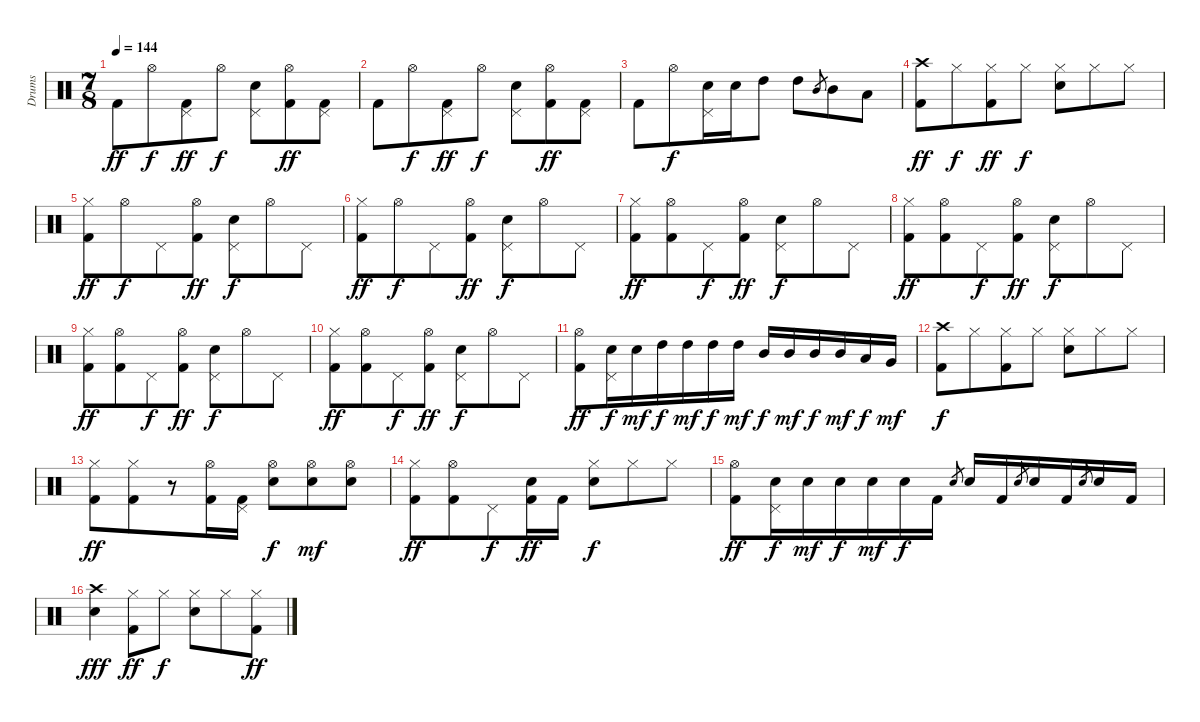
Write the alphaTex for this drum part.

\track ("Drums" "Drums") {instrument percussion}
\staff {score}
\articulation defaults
\ts (7 8)
\tempo 144
\clef neutral
\ks c "Kick (hit) 2".8{dy ff} "Hi-Hat (open)".8{dy f}
("Pedal Hi-Hat (hit)" "Kick (hit) 2").8{dy ff} "Hi-Hat (open)".8{dy f} ("Pedal Hi-Hat (hit)" "Snare (hit) 2").8 ("Hi-Hat (open)" "Kick (hit) 2").8{dy ff} ("Pedal Hi-Hat (hit)" "Kick (hit) 2").8 |
"Kick (hit) 2".8 "Hi-Hat (open)".8{dy f} ("Pedal Hi-Hat (hit)" "Kick (hit) 2").8{dy ff} "Hi-Hat (open)".8{dy f} ("Pedal Hi-Hat (hit)" "Snare (hit) 2").8 ("Hi-Hat (open)" "Kick (hit) 2").8{dy ff} ("Pedal Hi-Hat (hit)" "Kick (hit) 2").8 |
"Kick (hit) 2".8 "Hi-Hat (open)".8{dy f} ("Pedal Hi-Hat (hit)" "Snare (hit) 2").16 "Snare (hit) 2".16 "High Tom (hit)".8 "High Tom (hit)".8 "Mid Tom (hit)".8{gr} "Mid Tom (hit)".8 "Low Tom (hit)".8 |
("Crash high (hit)" "Kick (hit) 2").8{dy ff} "Hi-Hat (closed)".8{dy f} ("Hi-Hat (closed)" "Kick (hit) 2").8{dy ff} "Hi-Hat (closed)".8{dy f} ("Hi-Hat (closed)" "Snare (hit) 2").8 "Hi-Hat (closed)".8 "Hi-Hat (closed)".8 |
("Hi-Hat (closed)" "Kick (hit) 2").8{dy ff} "Hi-Hat (open)".8{dy f} "Pedal Hi-Hat (hit)".8 ("Hi-Hat (open)" "Kick (hit) 2").8{dy ff} ("Pedal Hi-Hat (hit)" "Snare (hit) 2").8{dy f} "Hi-Hat (open)".8 "Pedal Hi-Hat (hit)".8 |
("Hi-Hat (closed)" "Kick (hit) 2").8{dy ff} "Hi-Hat (open)".8{dy f} "Pedal Hi-Hat (hit)".8 ("Hi-Hat (open)" "Kick (hit) 2").8{dy ff} ("Pedal Hi-Hat (hit)" "Snare (hit) 2").8{dy f} "Hi-Hat (open)".8 "Pedal Hi-Hat (hit)".8 |
("Hi-Hat (closed)" "Kick (hit) 2").8{dy ff} ("Hi-Hat (open)" "Kick (hit) 2").8 "Pedal Hi-Hat (hit)".8{dy f} ("Hi-Hat (open)" "Kick (hit) 2").8{dy ff} ("Pedal Hi-Hat (hit)" "Snare (hit) 2").8{dy f} "Hi-Hat (open)".8 "Pedal Hi-Hat (hit)".8 |
("Hi-Hat (closed)" "Kick (hit) 2").8{dy ff} ("Hi-Hat (open)" "Kick (hit) 2").8 "Pedal Hi-Hat (hit)".8{dy f} ("Hi-Hat (open)" "Kick (hit) 2").8{dy ff} ("Pedal Hi-Hat (hit)" "Snare (hit) 2").8{dy f} "Hi-Hat (open)".8 "Pedal Hi-Hat (hit)".8 |
("Hi-Hat (closed)" "Kick (hit) 2").8{dy ff} ("Hi-Hat (open)" "Kick (hit) 2").8 "Pedal Hi-Hat (hit)".8{dy f} ("Hi-Hat (open)" "Kick (hit) 2").8{dy ff} ("Pedal Hi-Hat (hit)" "Snare (hit) 2").8{dy f} "Hi-Hat (open)".8 "Pedal Hi-Hat (hit)".8 |
("Hi-Hat (closed)" "Kick (hit) 2").8{dy ff} ("Hi-Hat (open)" "Kick (hit) 2").8 "Pedal Hi-Hat (hit)".8{dy f} ("Hi-Hat (open)" "Kick (hit) 2").8{dy ff} ("Pedal Hi-Hat (hit)" "Snare (hit) 2").8{dy f} "Hi-Hat (open)".8 "Pedal Hi-Hat (hit)".8 |
("Hi-Hat (open)" "Kick (hit) 2").8{dy ff} ("Pedal Hi-Hat (hit)" "Snare (hit) 2").16{dy f} "Snare (hit) 2".16{dy mf} "High Tom (hit)".16{dy f} "High Tom (hit)".16{dy mf} "High Tom (hit)".16{dy f} "High Tom (hit)".16{dy mf} "Mid Tom (hit)".16{dy f} "Mid Tom (hit)".16{dy mf} "Mid Tom (hit)".16{dy f} "Mid Tom (hit)".16{dy mf} "Low Tom (hit)".16{dy f} "Very Low Tom (hit)".16{dy mf} |
("Crash high (hit)" "Kick (hit) 2").8{dy f} "Hi-Hat (closed)".8 ("Hi-Hat (closed)" "Kick (hit) 2").8 "Hi-Hat (closed)".8 ("Hi-Hat (closed)" "Snare (hit) 2").8 "Hi-Hat (closed)".8 "Hi-Hat (closed)".8 |
("Hi-Hat (closed)" "Kick (hit) 2").8{dy ff} ("Hi-Hat (closed)" "Kick (hit) 2").8 r.8 ("Hi-Hat (open)" "Kick (hit) 2").16 ("Pedal Hi-Hat (hit)" "Kick (hit) 2").16 ("Hi-Hat (open)" "Snare (hit) 2").8{dy f} ("Hi-Hat (open)" "Snare (hit) 2").8{dy mf} ("Hi-Hat (open)" "Snare (hit) 2").8 |
("Hi-Hat (closed)" "Kick (hit) 2").8{dy ff} ("Hi-Hat (open)" "Kick (hit) 2").8 "Pedal Hi-Hat (hit)".8{dy f} ("Snare (hit) 2" "Kick (hit) 2").16{dy ff} "Kick (hit) 2".16 ("Hi-Hat (closed)" "Snare (hit) 2").8{dy f} "Hi-Hat (closed)".8 "Hi-Hat (closed)".8 |
("Hi-Hat (open)" "Kick (hit) 2").8{dy ff} ("Pedal Hi-Hat (hit)" "Snare (hit) 2").16{dy f} "Snare (hit) 2".16{dy mf} "Snare (hit) 2".16{dy f} "Snare (hit) 2".16{dy mf} "Snare (hit) 2".16{dy f} "Kick (hit) 2".16 "Snare (hit) 2".8{gr} "Snare (hit) 2".16 "Kick (hit) 2".16 "Snare (hit) 2".8{gr} "Snare (hit) 2".16 "Kick (hit) 2".16 "Snare (hit) 2".8{gr} "Snare (hit) 2".16 "Kick (hit) 2".16 |
("Crash high (hit)" "Snare (hit) 2").4{dy fff} ("Hi-Hat (closed)" "Kick (hit) 2").8{dy ff} "Hi-Hat (closed)".8{dy f} ("Hi-Hat (closed)" "Snare (hit) 2").8 "Hi-Hat (closed)".8 ("Hi-Hat (closed)" "Kick (hit) 2").8{dy ff}
